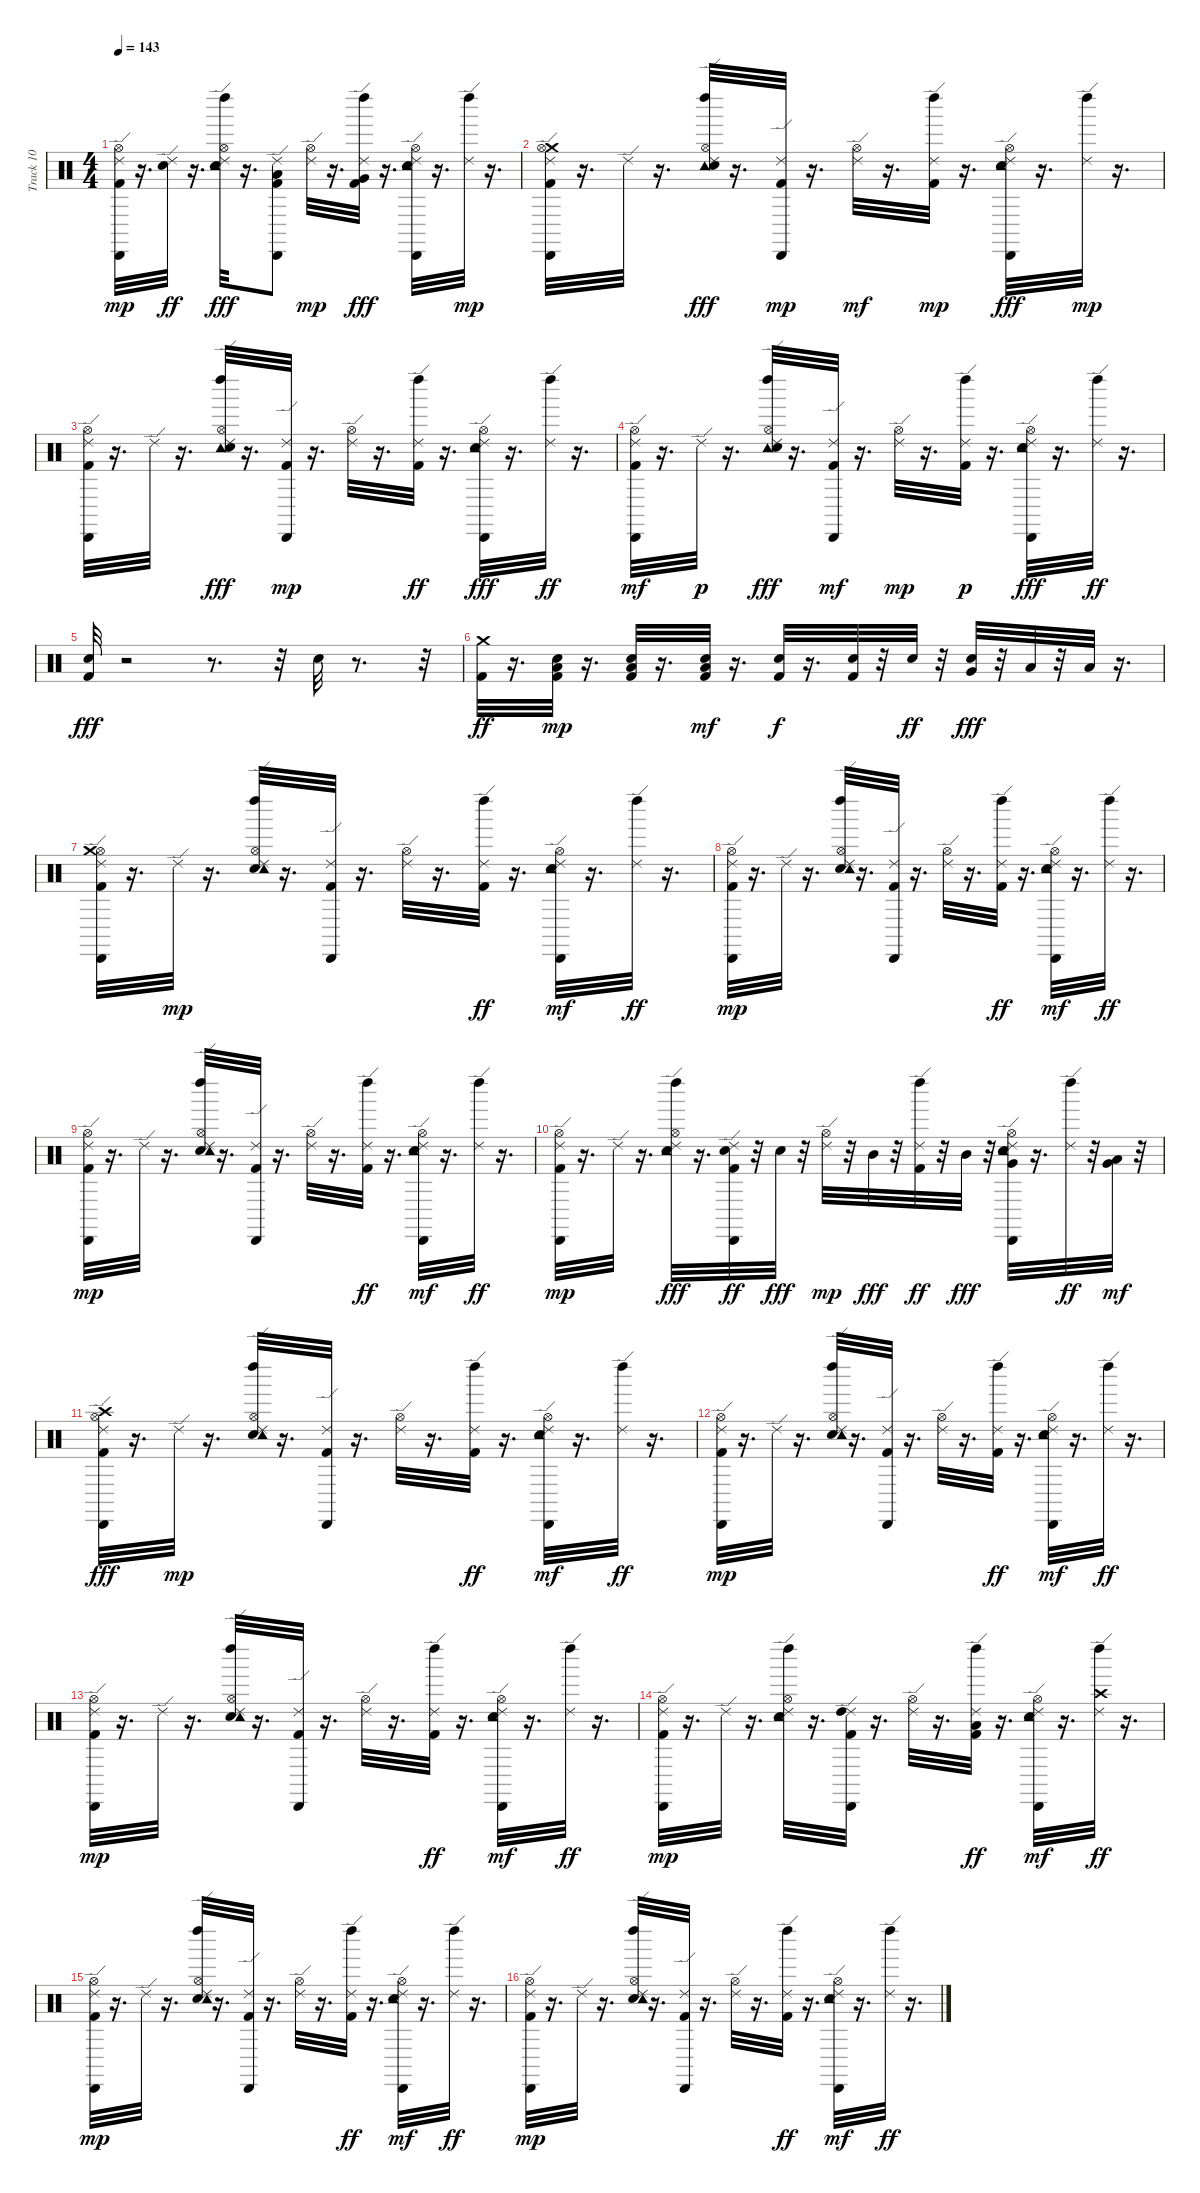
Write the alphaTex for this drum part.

\track ("Track 10" "Track 10") {instrument percussion}
\staff {score}
\articulation defaults
\ts (4 4)
\tempo 143
\clef neutral
\ks c
("Kick (hit) 2" "Ride (edge) 2" "Cabasa (hit)" "Hi-Hat (open)").32{dy mp} r.16{d} ("Ride (edge) 2" "Snare (hit) 2").32{dy ff} r.16{d} ("Ride (edge) 2" "Tambourine (hit)" "Left Maraca (hit)" "Hi-Hat (open)" "Snare (hit) 2").32{dy fff} r.16{d} ("Kick (hit) 2" "Ride (edge) 2" "Cabasa (hit)" "Low Tom (hit)").8 ("Ride (edge) 2" "Hi-Hat (open)").32{dy mp} r.16{d} ("Kick (hit) 2" "Ride (edge) 2" "Left Maraca (hit)" "Very Low Tom (hit)").32{dy fff} r.16{d} ("Ride (edge) 2" "Tambourine (hit)" "Cabasa (hit)" "Hi-Hat (open)" "Snare (hit) 2").32 r.16{d} ("Ride (edge) 2" "Left Maraca (hit)").32{dy mp} r.16{d} |
("Kick (hit) 2" "Crash medium (hit)" "Ride (edge) 2" "Cabasa (hit)" "Hi-Hat (open)").32 r.16{d} "Ride (edge) 2".32 r.16{d} ("Ride (edge) 2" "Tambourine (hit)" "Left Maraca (hit)" "Hi-Hat (open)" "Snare (hit) 2").32{dy fff} r.16{d} ("Kick (hit) 2" "Ride (edge) 2" "Cabasa (hit)").32{dy mp} r.16{d} ("Ride (edge) 2" "Hi-Hat (open)").32{dy mf} r.16{d} ("Kick (hit) 2" "Ride (edge) 2" "Left Maraca (hit)").32{dy mp} r.16{d} ("Ride (edge) 2" "Tambourine (hit)" "Cabasa (hit)" "Hi-Hat (open)" "Snare (hit) 2").32{dy fff} r.16{d} ("Ride (edge) 2" "Left Maraca (hit)").32{dy mp} r.16{d} |
("Kick (hit) 2" "Ride (edge) 2" "Cabasa (hit)" "Hi-Hat (open)").32 r.16{d} "Ride (edge) 2".32 r.16{d} ("Ride (edge) 2" "Tambourine (hit)" "Left Maraca (hit)" "Hi-Hat (open)" "Snare (hit) 2").32{dy fff} r.16{d} ("Kick (hit) 2" "Ride (edge) 2" "Cabasa (hit)").32{dy mp} r.16{d} ("Ride (edge) 2" "Hi-Hat (open)").32 r.16{d} ("Kick (hit) 2" "Ride (edge) 2" "Left Maraca (hit)").32{dy ff} r.16{d} ("Ride (edge) 2" "Tambourine (hit)" "Cabasa (hit)" "Hi-Hat (open)" "Snare (hit) 2").32{dy fff} r.16{d} ("Ride (edge) 2" "Left Maraca (hit)").32{dy ff} r.16{d} |
("Kick (hit) 2" "Ride (edge) 2" "Cabasa (hit)" "Hi-Hat (open)").32{dy mf} r.16{d} "Ride (edge) 2".32{dy p} r.16{d} ("Ride (edge) 2" "Tambourine (hit)" "Left Maraca (hit)" "Hi-Hat (open)" "Snare (hit) 2").32{dy fff} r.16{d} ("Kick (hit) 2" "Ride (edge) 2" "Cabasa (hit)").32{dy mf} r.16{d} ("Ride (edge) 2" "Hi-Hat (open)").32{dy mp} r.16{d} ("Kick (hit) 2" "Ride (edge) 2" "Left Maraca (hit)").32{dy p} r.16{d} ("Ride (edge) 2" "Tambourine (hit)" "Cabasa (hit)" "Hi-Hat (open)" "Snare (hit) 2").32{dy fff} r.16{d} ("Ride (edge) 2" "Left Maraca (hit)").32{dy ff} r.16{d} |
("Kick (hit) 2" "Snare (hit) 2").32{dy fff} r.2 r.8{d} r.32 "Snare (hit) 2".32 r.8{d} r.32 |
("Crash medium (hit)" "Kick (hit) 2").32{dy ff} r.16{d} ("Snare (hit) 2" "Kick (hit) 2" "Low Floor Tom (hit)").32{dy mp} r.16{d} ("Snare (hit) 2" "Kick (hit) 2" "Low Floor Tom (hit)").32 r.16{d} ("Snare (hit) 2" "Kick (hit) 2" "Low Floor Tom (hit)").32{dy mf} r.16{d} ("Snare (hit) 2" "Kick (hit) 2").32{dy f} r.16{d} ("Snare (hit) 2" "Kick (hit) 2").32 r.32 "Snare (hit) 2".32{dy ff} r.32 ("Very Low Tom (hit)" "Snare (hit) 2").32{dy fff} r.32 "Low Floor Tom (hit)".32 r.32 "Low Floor Tom (hit)".32 r.16{d} |
("Kick (hit) 2" "Ride (edge) 2" "Cabasa (hit)" "Hi-Hat (open)" "Crash medium (hit)").32 r.16{d} "Ride (edge) 2".32{dy mp} r.16{d} ("Snare (hit) 2" "Ride (edge) 2" "Tambourine (hit)" "Left Maraca (hit)" "Hi-Hat (open)").32 r.16{d} ("Kick (hit) 2" "Ride (edge) 2" "Cabasa (hit)").32 r.16{d} ("Ride (edge) 2" "Hi-Hat (open)").32 r.16{d} ("Kick (hit) 2" "Ride (edge) 2" "Left Maraca (hit)").32{dy ff} r.16{d} ("Snare (hit) 2" "Ride (edge) 2" "Tambourine (hit)" "Cabasa (hit)" "Hi-Hat (open)").32{dy mf} r.16{d} ("Ride (edge) 2" "Left Maraca (hit)").32{dy ff} r.16{d} |
("Kick (hit) 2" "Ride (edge) 2" "Cabasa (hit)" "Hi-Hat (open)").32{dy mp} r.16{d} "Ride (edge) 2".32 r.16{d} ("Snare (hit) 2" "Ride (edge) 2" "Tambourine (hit)" "Left Maraca (hit)" "Hi-Hat (open)").32 r.16{d} ("Kick (hit) 2" "Ride (edge) 2" "Cabasa (hit)").32 r.16{d} ("Ride (edge) 2" "Hi-Hat (open)").32 r.16{d} ("Kick (hit) 2" "Ride (edge) 2" "Left Maraca (hit)").32{dy ff} r.16{d} ("Snare (hit) 2" "Ride (edge) 2" "Tambourine (hit)" "Cabasa (hit)" "Hi-Hat (open)").32{dy mf} r.16{d} ("Ride (edge) 2" "Left Maraca (hit)").32{dy ff} r.16{d} |
("Kick (hit) 2" "Ride (edge) 2" "Cabasa (hit)" "Hi-Hat (open)").32{dy mp} r.16{d} "Ride (edge) 2".32 r.16{d} ("Snare (hit) 2" "Ride (edge) 2" "Tambourine (hit)" "Left Maraca (hit)" "Hi-Hat (open)").32 r.16{d} ("Kick (hit) 2" "Ride (edge) 2" "Cabasa (hit)").32 r.16{d} ("Ride (edge) 2" "Hi-Hat (open)").32 r.16{d} ("Kick (hit) 2" "Ride (edge) 2" "Left Maraca (hit)").32{dy ff} r.16{d} ("Snare (hit) 2" "Ride (edge) 2" "Tambourine (hit)" "Cabasa (hit)" "Hi-Hat (open)").32{dy mf} r.16{d} ("Ride (edge) 2" "Left Maraca (hit)").32{dy ff} r.16{d} |
("Kick (hit) 2" "Ride (edge) 2" "Cabasa (hit)" "Hi-Hat (open)").32{dy mp} r.16{d} "Ride (edge) 2".32 r.16{d} ("Ride (edge) 2" "Tambourine (hit)" "Left Maraca (hit)" "Hi-Hat (open)" "Snare (hit) 2").32{dy fff} r.16{d} ("Kick (hit) 2" "Ride (edge) 2" "Cabasa (hit)" "Snare (hit) 2").32{dy ff} r.32 "Snare (hit) 2".32{dy fff} r.32 ("Ride (edge) 2" "Hi-Hat (open)").32{dy mp} r.32 "Mid Tom (hit)".32{dy fff} r.32 ("Kick (hit) 2" "Ride (edge) 2" "Left Maraca (hit)").32{dy ff} r.32 "Mid Tom (hit)".32{dy fff} r.32 ("Snare (hit) 2" "Ride (edge) 2" "Tambourine (hit)" "Cabasa (hit)" "Hi-Hat (open)" "Very Low Tom (hit)").32 r.16{d} ("Ride (edge) 2" "Left Maraca (hit)").32{dy ff} r.32 ("Very Low Tom (hit)" "Low Floor Tom (hit)").32{dy mf} r.32 |
("Kick (hit) 2" "Ride (edge) 2" "Cabasa (hit)" "Hi-Hat (open)" "Crash high (hit)").32{dy fff} r.16{d} "Ride (edge) 2".32{dy mp} r.16{d} ("Snare (hit) 2" "Ride (edge) 2" "Tambourine (hit)" "Left Maraca (hit)" "Hi-Hat (open)").32 r.16{d} ("Kick (hit) 2" "Ride (edge) 2" "Cabasa (hit)").32 r.16{d} ("Ride (edge) 2" "Hi-Hat (open)").32 r.16{d} ("Kick (hit) 2" "Ride (edge) 2" "Left Maraca (hit)").32{dy ff} r.16{d} ("Snare (hit) 2" "Ride (edge) 2" "Tambourine (hit)" "Cabasa (hit)" "Hi-Hat (open)").32{dy mf} r.16{d} ("Ride (edge) 2" "Left Maraca (hit)").32{dy ff} r.16{d} |
("Kick (hit) 2" "Ride (edge) 2" "Cabasa (hit)" "Hi-Hat (open)").32{dy mp} r.16{d} "Ride (edge) 2".32 r.16{d} ("Snare (hit) 2" "Ride (edge) 2" "Tambourine (hit)" "Left Maraca (hit)" "Hi-Hat (open)").32 r.16{d} ("Kick (hit) 2" "Ride (edge) 2" "Cabasa (hit)").32 r.16{d} ("Ride (edge) 2" "Hi-Hat (open)").32 r.16{d} ("Kick (hit) 2" "Ride (edge) 2" "Left Maraca (hit)").32{dy ff} r.16{d} ("Snare (hit) 2" "Ride (edge) 2" "Tambourine (hit)" "Cabasa (hit)" "Hi-Hat (open)").32{dy mf} r.16{d} ("Ride (edge) 2" "Left Maraca (hit)").32{dy ff} r.16{d} |
("Kick (hit) 2" "Ride (edge) 2" "Cabasa (hit)" "Hi-Hat (open)").32{dy mp} r.16{d} "Ride (edge) 2".32 r.16{d} ("Snare (hit) 2" "Ride (edge) 2" "Tambourine (hit)" "Left Maraca (hit)" "Hi-Hat (open)").32 r.16{d} ("Kick (hit) 2" "Ride (edge) 2" "Cabasa (hit)").32 r.16{d} ("Ride (edge) 2" "Hi-Hat (open)").32 r.16{d} ("Kick (hit) 2" "Ride (edge) 2" "Left Maraca (hit)").32{dy ff} r.16{d} ("Snare (hit) 2" "Ride (edge) 2" "Tambourine (hit)" "Cabasa (hit)" "Hi-Hat (open)").32{dy mf} r.16{d} ("Ride (edge) 2" "Left Maraca (hit)").32{dy ff} r.16{d} |
("Kick (hit) 2" "Ride (edge) 2" "Cabasa (hit)" "Hi-Hat (open)").32{dy mp} r.16{d} "Ride (edge) 2".32 r.16{d} ("Snare (hit) 2" "Ride (edge) 2" "Tambourine (hit)" "Left Maraca (hit)" "Hi-Hat (open)").32 r.16{d} ("Kick (hit) 2" "Ride (edge) 2" "Cabasa (hit)" "High Tom (hit)").32 r.16{d} ("Ride (edge) 2" "Hi-Hat (open)").32 r.16{d} ("Kick (hit) 2" "Ride (edge) 2" "Left Maraca (hit)" "Low Tom (hit)").32{dy ff} r.16{d} ("Snare (hit) 2" "Ride (edge) 2" "Tambourine (hit)" "Cabasa (hit)" "Hi-Hat (open)").32{dy mf} r.16{d} ("Ride (edge) 2" "Left Maraca (hit)" "Crash high (hit)").32{dy ff} r.16{d} |
("Kick (hit) 2" "Ride (edge) 2" "Cabasa (hit)" "Hi-Hat (open)").32{dy mp} r.16{d} "Ride (edge) 2".32 r.16{d} ("Snare (hit) 2" "Ride (edge) 2" "Tambourine (hit)" "Left Maraca (hit)" "Hi-Hat (open)").32 r.16{d} ("Kick (hit) 2" "Ride (edge) 2" "Cabasa (hit)").32 r.16{d} ("Ride (edge) 2" "Hi-Hat (open)").32 r.16{d} ("Kick (hit) 2" "Ride (edge) 2" "Left Maraca (hit)").32{dy ff} r.16{d} ("Snare (hit) 2" "Ride (edge) 2" "Tambourine (hit)" "Cabasa (hit)" "Hi-Hat (open)").32{dy mf} r.16{d} ("Ride (edge) 2" "Left Maraca (hit)").32{dy ff} r.16{d} |
("Kick (hit) 2" "Ride (edge) 2" "Cabasa (hit)" "Hi-Hat (open)").32{dy mp} r.16{d} "Ride (edge) 2".32 r.16{d} ("Snare (hit) 2" "Ride (edge) 2" "Tambourine (hit)" "Left Maraca (hit)" "Hi-Hat (open)").32 r.16{d} ("Kick (hit) 2" "Ride (edge) 2" "Cabasa (hit)").32 r.16{d} ("Ride (edge) 2" "Hi-Hat (open)").32 r.16{d} ("Kick (hit) 2" "Ride (edge) 2" "Left Maraca (hit)").32{dy ff} r.16{d} ("Snare (hit) 2" "Ride (edge) 2" "Tambourine (hit)" "Cabasa (hit)" "Hi-Hat (open)").32{dy mf} r.16{d} ("Ride (edge) 2" "Left Maraca (hit)").32{dy ff} r.16{d}
